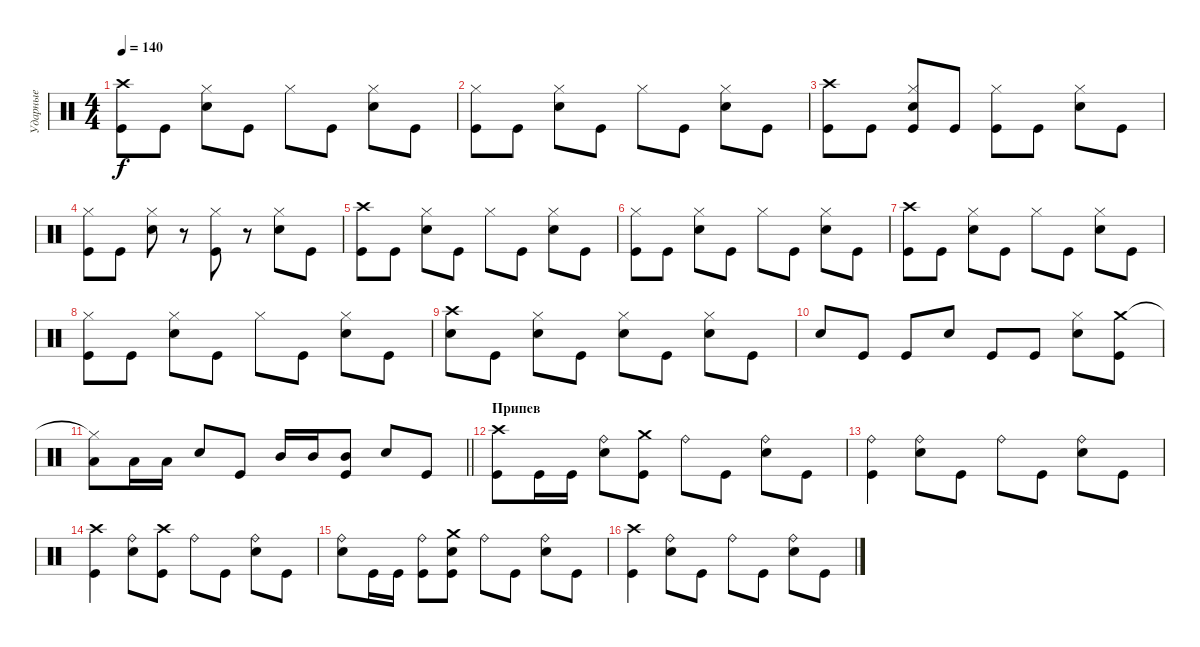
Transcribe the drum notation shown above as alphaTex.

\track ("Ударные" "Ударные") {instrument percussion}
\staff {score}
\articulation defaults
\ts (4 4)
\tempo 140
\clef neutral
\ks c
("Crash high (hit)" "Kick (hit)").8{dy f} "Kick (hit)".8 ("Hi-Hat (closed)" "Electric Snare (hit)").8 "Kick (hit)".8 "Hi-Hat (closed)".8 "Kick (hit)".8 ("Hi-Hat (closed)" "Electric Snare (hit)").8 "Kick (hit)".8 |
("Hi-Hat (closed)" "Kick (hit)").8 "Kick (hit)".8 ("Hi-Hat (closed)" "Electric Snare (hit)").8 "Kick (hit)".8 "Hi-Hat (closed)".8 "Kick (hit)".8 ("Hi-Hat (closed)" "Electric Snare (hit)").8 "Kick (hit)".8 |
("Crash high (hit)" "Kick (hit)").8 "Kick (hit)".8 ("Hi-Hat (closed)" "Electric Snare (hit)" "Kick (hit)").8 "Kick (hit)".8 ("Hi-Hat (closed)" "Kick (hit)").8 "Kick (hit)".8 ("Hi-Hat (closed)" "Electric Snare (hit)").8 "Kick (hit)".8 |
("Hi-Hat (closed)" "Kick (hit)").8 "Kick (hit)".8 ("Hi-Hat (closed)" "Electric Snare (hit)").8 r.8 ("Hi-Hat (closed)" "Kick (hit)").8 r.8 ("Hi-Hat (closed)" "Electric Snare (hit)").8 "Kick (hit)".8 |
("Crash high (hit)" "Kick (hit)").8 "Kick (hit)".8 ("Hi-Hat (closed)" "Electric Snare (hit)").8 "Kick (hit)".8 "Hi-Hat (closed)".8 "Kick (hit)".8 ("Hi-Hat (closed)" "Electric Snare (hit)").8 "Kick (hit)".8 |
("Hi-Hat (closed)" "Kick (hit)").8 "Kick (hit)".8 ("Hi-Hat (closed)" "Electric Snare (hit)").8 "Kick (hit)".8 "Hi-Hat (closed)".8 "Kick (hit)".8 ("Hi-Hat (closed)" "Electric Snare (hit)").8 "Kick (hit)".8 |
("Crash high (hit)" "Kick (hit)").8 "Kick (hit)".8 ("Hi-Hat (closed)" "Electric Snare (hit)").8 "Kick (hit)".8 "Hi-Hat (closed)".8 "Kick (hit)".8 ("Hi-Hat (closed)" "Electric Snare (hit)").8 "Kick (hit)".8 |
("Hi-Hat (closed)" "Kick (hit)").8 "Kick (hit)".8 ("Hi-Hat (closed)" "Electric Snare (hit)").8 "Kick (hit)".8 "Hi-Hat (closed)".8 "Kick (hit)".8 ("Hi-Hat (closed)" "Electric Snare (hit)").8 "Kick (hit)".8 |
("Crash high (hit)" "Electric Snare (hit)").8 "Kick (hit)".8 ("Hi-Hat (closed)" "Electric Snare (hit)").8 "Kick (hit)".8 ("Hi-Hat (closed)" "Electric Snare (hit)").8 "Kick (hit)".8 ("Hi-Hat (closed)" "Electric Snare (hit)").8 "Kick (hit)".8 |
"Electric Snare (hit)".8 "Kick (hit)".8 "Kick (hit)".8 "Electric Snare (hit)".8 "Kick (hit)".8 "Kick (hit)".8 ("Hi-Hat (closed)" "Electric Snare (hit)").8 ("Crash medium (hit)" "Kick (hit)").8 |
\barLineRight lightlight
("Hi-Hat (closed)"{t} "Low Tom (hit)").8 "Low Tom (hit)".16 "Low Tom (hit)".16 "Electric Snare (hit)".8 "Kick (hit)".8 "Mid Tom (hit)".16 "Mid Tom (hit)".16 ("Mid Tom (hit)" "Kick (hit)").8 "Electric Snare (hit)".8 "Kick (hit)".8 |
\section ("" "Припев")
("Crash high (hit)" "Kick (hit)").8 "Kick (hit)".16 "Kick (hit)".16 ("Ride (bell)" "Electric Snare (hit)").8 ("Crash medium (hit)" "Kick (hit)").8 "Ride (bell)".8 "Kick (hit)".8 ("Ride (bell)" "Electric Snare (hit)").8 "Kick (hit)".8 |
("Ride (bell)" "Kick (hit)").4 ("Ride (bell)" "Electric Snare (hit)").8 "Kick (hit)".8 "Ride (bell)".8 "Kick (hit)".8 ("Ride (bell)" "Electric Snare (hit)").8 "Kick (hit)".8 |
("Crash high (hit)" "Kick (hit)").4 ("Ride (bell)" "Electric Snare (hit)").8 ("Crash high (hit)" "Kick (hit)").8 "Ride (bell)".8 "Kick (hit)".8 ("Ride (bell)" "Electric Snare (hit)").8 "Kick (hit)".8 |
("Ride (bell)" "Electric Snare (hit)").8 "Kick (hit)".16 "Kick (hit)".16 ("Ride (bell)" "Kick (hit)").8 ("Crash medium (hit)" "Electric Snare (hit)" "Kick (hit)").8 "Ride (bell)".8 "Kick (hit)".8 ("Ride (bell)" "Electric Snare (hit)").8 "Kick (hit)".8 |
("Crash high (hit)" "Kick (hit)").4 ("Ride (bell)" "Electric Snare (hit)").8 "Kick (hit)".8 "Ride (bell)".8 "Kick (hit)".8 ("Ride (bell)" "Electric Snare (hit)").8 "Kick (hit)".8
